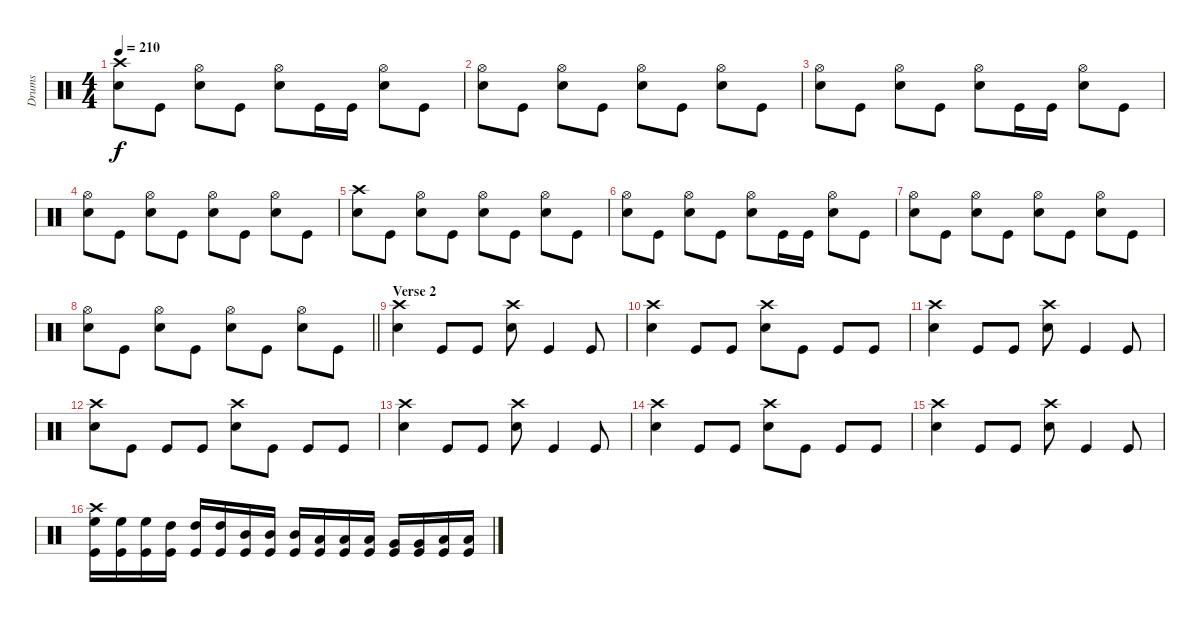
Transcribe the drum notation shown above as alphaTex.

\track ("Drums" "Drums") {instrument percussion}
\staff {score}
\articulation defaults
\ts (4 4)
\tempo 210
\clef neutral
\ks c
("Crash high (hit)" "Snare (hit) 2").8{dy f} "Kick (hit)".8 ("Hi-Hat (open)" "Snare (hit) 2").8 "Kick (hit)".8 ("Hi-Hat (open)" "Snare (hit) 2").8 "Kick (hit)".16 "Kick (hit)".16 ("Hi-Hat (open)" "Snare (hit) 2").8 "Kick (hit)".8 |
("Hi-Hat (open)" "Snare (hit) 2").8 "Kick (hit)".8 ("Hi-Hat (open)" "Snare (hit) 2").8 "Kick (hit)".8 ("Hi-Hat (open)" "Snare (hit) 2").8 "Kick (hit)".8 ("Hi-Hat (open)" "Snare (hit) 2").8 "Kick (hit)".8 |
("Hi-Hat (open)" "Snare (hit) 2").8 "Kick (hit)".8 ("Hi-Hat (open)" "Snare (hit) 2").8 "Kick (hit)".8 ("Hi-Hat (open)" "Snare (hit) 2").8 "Kick (hit)".16 "Kick (hit)".16 ("Hi-Hat (open)" "Snare (hit) 2").8 "Kick (hit)".8 |
("Hi-Hat (open)" "Snare (hit) 2").8 "Kick (hit)".8 ("Hi-Hat (open)" "Snare (hit) 2").8 "Kick (hit)".8 ("Hi-Hat (open)" "Snare (hit) 2").8 "Kick (hit)".8 ("Hi-Hat (open)" "Snare (hit) 2").8 "Kick (hit)".8 |
("Crash high (hit)" "Snare (hit) 2").8 "Kick (hit)".8 ("Hi-Hat (open)" "Snare (hit) 2").8 "Kick (hit)".8 ("Hi-Hat (open)" "Snare (hit) 2").8 "Kick (hit)".8 ("Hi-Hat (open)" "Snare (hit) 2").8 "Kick (hit)".8 |
("Hi-Hat (open)" "Snare (hit) 2").8 "Kick (hit)".8 ("Hi-Hat (open)" "Snare (hit) 2").8 "Kick (hit)".8 ("Hi-Hat (open)" "Snare (hit) 2").8 "Kick (hit)".16 "Kick (hit)".16 ("Hi-Hat (open)" "Snare (hit) 2").8 "Kick (hit)".8 |
("Hi-Hat (open)" "Snare (hit) 2").8 "Kick (hit)".8 ("Hi-Hat (open)" "Snare (hit) 2").8 "Kick (hit)".8 ("Hi-Hat (open)" "Snare (hit) 2").8 "Kick (hit)".8 ("Hi-Hat (open)" "Snare (hit) 2").8 "Kick (hit)".8 |
\barLineRight lightlight
("Hi-Hat (open)" "Snare (hit) 2").8 "Kick (hit)".8 ("Hi-Hat (open)" "Snare (hit) 2").8 "Kick (hit)".8 ("Hi-Hat (open)" "Snare (hit) 2").8 "Kick (hit)".8 ("Hi-Hat (open)" "Snare (hit) 2").8 "Kick (hit)".8 |
\section ("" "Verse 2")
("Crash high (hit)" "Snare (hit) 2").4 "Kick (hit)".8 "Kick (hit)".8 ("Crash high (hit)" "Snare (hit) 2").8 "Kick (hit)".4 "Kick (hit)".8 |
("Crash high (hit)" "Snare (hit) 2").4 "Kick (hit)".8 "Kick (hit)".8 ("Crash high (hit)" "Snare (hit) 2").8 "Kick (hit)".8 "Kick (hit)".8 "Kick (hit)".8 |
("Crash high (hit)" "Snare (hit) 2").4 "Kick (hit)".8 "Kick (hit)".8 ("Crash high (hit)" "Snare (hit) 2").8 "Kick (hit)".4 "Kick (hit)".8 |
("Crash high (hit)" "Snare (hit) 2").8 "Kick (hit)".8 "Kick (hit)".8 "Kick (hit)".8 ("Crash high (hit)" "Snare (hit) 2").8 "Kick (hit)".8 "Kick (hit)".8 "Kick (hit)".8 |
("Crash high (hit)" "Snare (hit) 2").4 "Kick (hit)".8 "Kick (hit)".8 ("Crash high (hit)" "Snare (hit) 2").8 "Kick (hit)".4 "Kick (hit)".8 |
("Crash high (hit)" "Snare (hit) 2").4 "Kick (hit)".8 "Kick (hit)".8 ("Crash high (hit)" "Snare (hit) 2").8 "Kick (hit)".8 "Kick (hit)".8 "Kick (hit)".8 |
("Crash high (hit)" "Snare (hit) 2").4 "Kick (hit)".8 "Kick (hit)".8 ("Crash high (hit)" "Snare (hit) 2").8 "Kick (hit)".4 "Kick (hit)".8 |
("Crash high (hit)" "High Floor Tom (hit)" "Kick (hit)").16 ("High Floor Tom (hit)" "Kick (hit)").16 ("High Floor Tom (hit)" "Kick (hit)").16 ("High Tom (hit)" "Kick (hit)").16 ("High Tom (hit)" "Kick (hit)").16 ("High Tom (hit)" "Kick (hit)").16 ("Mid Tom (hit)" "Kick (hit)").16 ("Mid Tom (hit)" "Kick (hit)").16 ("Mid Tom (hit)" "Kick (hit)").16 ("Low Tom (hit)" "Kick (hit)").16 ("Low Tom (hit)" "Kick (hit)").16 ("Low Tom (hit)" "Kick (hit)").16 ("Very Low Tom (hit)" "Kick (hit)").16 ("Very Low Tom (hit)" "Kick (hit)").16 ("Low Floor Tom (hit)" "Kick (hit)").16 ("Low Floor Tom (hit)" "Kick (hit)").16
